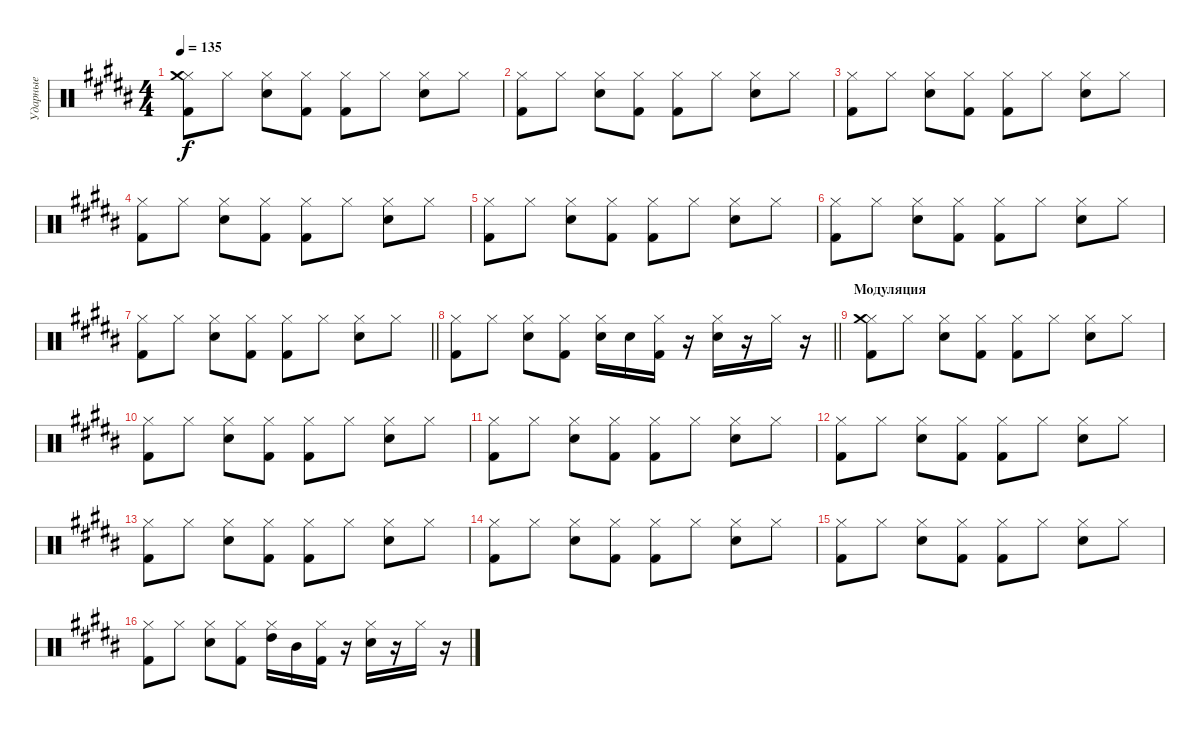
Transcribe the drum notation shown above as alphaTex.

\track ("Ударные" "Ударные") {instrument percussion}
\staff {score}
\articulation defaults
\ts (4 4)
\tempo 135
\clef neutral
\ks g#minor
("Hi-Hat (closed)" "Crash medium (hit)" "Kick (hit) 2").8{dy f} "Hi-Hat (closed)".8 ("Hi-Hat (closed)" "Electric Snare (hit)").8 ("Hi-Hat (closed)" "Kick (hit) 2").8 ("Hi-Hat (closed)" "Kick (hit) 2").8 "Hi-Hat (closed)".8 ("Hi-Hat (closed)" "Electric Snare (hit)").8 "Hi-Hat (closed)".8 |
("Hi-Hat (closed)" "Kick (hit) 2").8 "Hi-Hat (closed)".8 ("Hi-Hat (closed)" "Electric Snare (hit)").8 ("Hi-Hat (closed)" "Kick (hit) 2").8 ("Hi-Hat (closed)" "Kick (hit) 2").8 "Hi-Hat (closed)".8 ("Hi-Hat (closed)" "Electric Snare (hit)").8 "Hi-Hat (closed)".8 |
("Hi-Hat (closed)" "Kick (hit) 2").8 "Hi-Hat (closed)".8 ("Hi-Hat (closed)" "Electric Snare (hit)").8 ("Hi-Hat (closed)" "Kick (hit) 2").8 ("Hi-Hat (closed)" "Kick (hit) 2").8 "Hi-Hat (closed)".8 ("Hi-Hat (closed)" "Electric Snare (hit)").8 "Hi-Hat (closed)".8 |
("Hi-Hat (closed)" "Kick (hit) 2").8 "Hi-Hat (closed)".8 ("Hi-Hat (closed)" "Electric Snare (hit)").8 ("Hi-Hat (closed)" "Kick (hit) 2").8 ("Hi-Hat (closed)" "Kick (hit) 2").8 "Hi-Hat (closed)".8 ("Hi-Hat (closed)" "Electric Snare (hit)").8 "Hi-Hat (closed)".8 |
("Hi-Hat (closed)" "Kick (hit) 2").8 "Hi-Hat (closed)".8 ("Hi-Hat (closed)" "Electric Snare (hit)").8 ("Hi-Hat (closed)" "Kick (hit) 2").8 ("Hi-Hat (closed)" "Kick (hit) 2").8 "Hi-Hat (closed)".8 ("Hi-Hat (closed)" "Electric Snare (hit)").8 "Hi-Hat (closed)".8 |
("Hi-Hat (closed)" "Kick (hit) 2").8 "Hi-Hat (closed)".8 ("Hi-Hat (closed)" "Electric Snare (hit)").8 ("Hi-Hat (closed)" "Kick (hit) 2").8 ("Hi-Hat (closed)" "Kick (hit) 2").8 "Hi-Hat (closed)".8 ("Hi-Hat (closed)" "Electric Snare (hit)").8 "Hi-Hat (closed)".8 |
\barLineRight lightlight
("Hi-Hat (closed)" "Kick (hit) 2").8 "Hi-Hat (closed)".8 ("Hi-Hat (closed)" "Electric Snare (hit)").8 ("Hi-Hat (closed)" "Kick (hit) 2").8 ("Hi-Hat (closed)" "Kick (hit) 2").8 "Hi-Hat (closed)".8 ("Hi-Hat (closed)" "Electric Snare (hit)").8 "Hi-Hat (closed)".8 |
\barLineRight lightlight
("Hi-Hat (closed)" "Kick (hit) 2").8 "Hi-Hat (closed)".8 ("Hi-Hat (closed)" "Electric Snare (hit)").8 ("Hi-Hat (closed)" "Kick (hit) 2").8 ("Hi-Hat (closed)" "Electric Snare (hit)").16 "Electric Snare (hit)".16 ("Hi-Hat (closed)" "Kick (hit) 2").16 r.16 ("Hi-Hat (closed)" "Electric Snare (hit)").16 r.16 "Hi-Hat (closed)".16 r.16 |
\section ("" "Модуляция")
("Hi-Hat (closed)" "Crash medium (hit)" "Kick (hit) 2").8 "Hi-Hat (closed)".8 ("Hi-Hat (closed)" "Electric Snare (hit)").8 ("Hi-Hat (closed)" "Kick (hit) 2").8 ("Hi-Hat (closed)" "Kick (hit) 2").8 "Hi-Hat (closed)".8 ("Hi-Hat (closed)" "Electric Snare (hit)").8 "Hi-Hat (closed)".8 |
("Hi-Hat (closed)" "Kick (hit) 2").8 "Hi-Hat (closed)".8 ("Hi-Hat (closed)" "Electric Snare (hit)").8 ("Hi-Hat (closed)" "Kick (hit) 2").8 ("Hi-Hat (closed)" "Kick (hit) 2").8 "Hi-Hat (closed)".8 ("Hi-Hat (closed)" "Electric Snare (hit)").8 "Hi-Hat (closed)".8 |
("Hi-Hat (closed)" "Kick (hit) 2").8 "Hi-Hat (closed)".8 ("Hi-Hat (closed)" "Electric Snare (hit)").8 ("Hi-Hat (closed)" "Kick (hit) 2").8 ("Hi-Hat (closed)" "Kick (hit) 2").8 "Hi-Hat (closed)".8 ("Hi-Hat (closed)" "Electric Snare (hit)").8 "Hi-Hat (closed)".8 |
("Hi-Hat (closed)" "Kick (hit) 2").8 "Hi-Hat (closed)".8 ("Hi-Hat (closed)" "Electric Snare (hit)").8 ("Hi-Hat (closed)" "Kick (hit) 2").8 ("Hi-Hat (closed)" "Kick (hit) 2").8 "Hi-Hat (closed)".8 ("Hi-Hat (closed)" "Electric Snare (hit)").8 "Hi-Hat (closed)".8 |
("Hi-Hat (closed)" "Kick (hit) 2").8 "Hi-Hat (closed)".8 ("Hi-Hat (closed)" "Electric Snare (hit)").8 ("Hi-Hat (closed)" "Kick (hit) 2").8 ("Hi-Hat (closed)" "Kick (hit) 2").8 "Hi-Hat (closed)".8 ("Hi-Hat (closed)" "Electric Snare (hit)").8 "Hi-Hat (closed)".8 |
("Hi-Hat (closed)" "Kick (hit) 2").8 "Hi-Hat (closed)".8 ("Hi-Hat (closed)" "Electric Snare (hit)").8 ("Hi-Hat (closed)" "Kick (hit) 2").8 ("Hi-Hat (closed)" "Kick (hit) 2").8 "Hi-Hat (closed)".8 ("Hi-Hat (closed)" "Electric Snare (hit)").8 "Hi-Hat (closed)".8 |
("Hi-Hat (closed)" "Kick (hit) 2").8 "Hi-Hat (closed)".8 ("Hi-Hat (closed)" "Electric Snare (hit)").8 ("Hi-Hat (closed)" "Kick (hit) 2").8 ("Hi-Hat (closed)" "Kick (hit) 2").8 "Hi-Hat (closed)".8 ("Hi-Hat (closed)" "Electric Snare (hit)").8 "Hi-Hat (closed)".8 |
("Hi-Hat (closed)" "Kick (hit) 2").8 "Hi-Hat (closed)".8 ("Hi-Hat (closed)" "Electric Snare (hit)").8 ("Hi-Hat (closed)" "Kick (hit) 2").8 ("Hi-Hat (closed)" "High Tom (hit)").16 "Mid Tom (hit)".16 ("Hi-Hat (closed)" "Kick (hit) 2").16 r.16 ("Hi-Hat (closed)" "Electric Snare (hit)").16 r.16 "Hi-Hat (closed)".16 r.16
